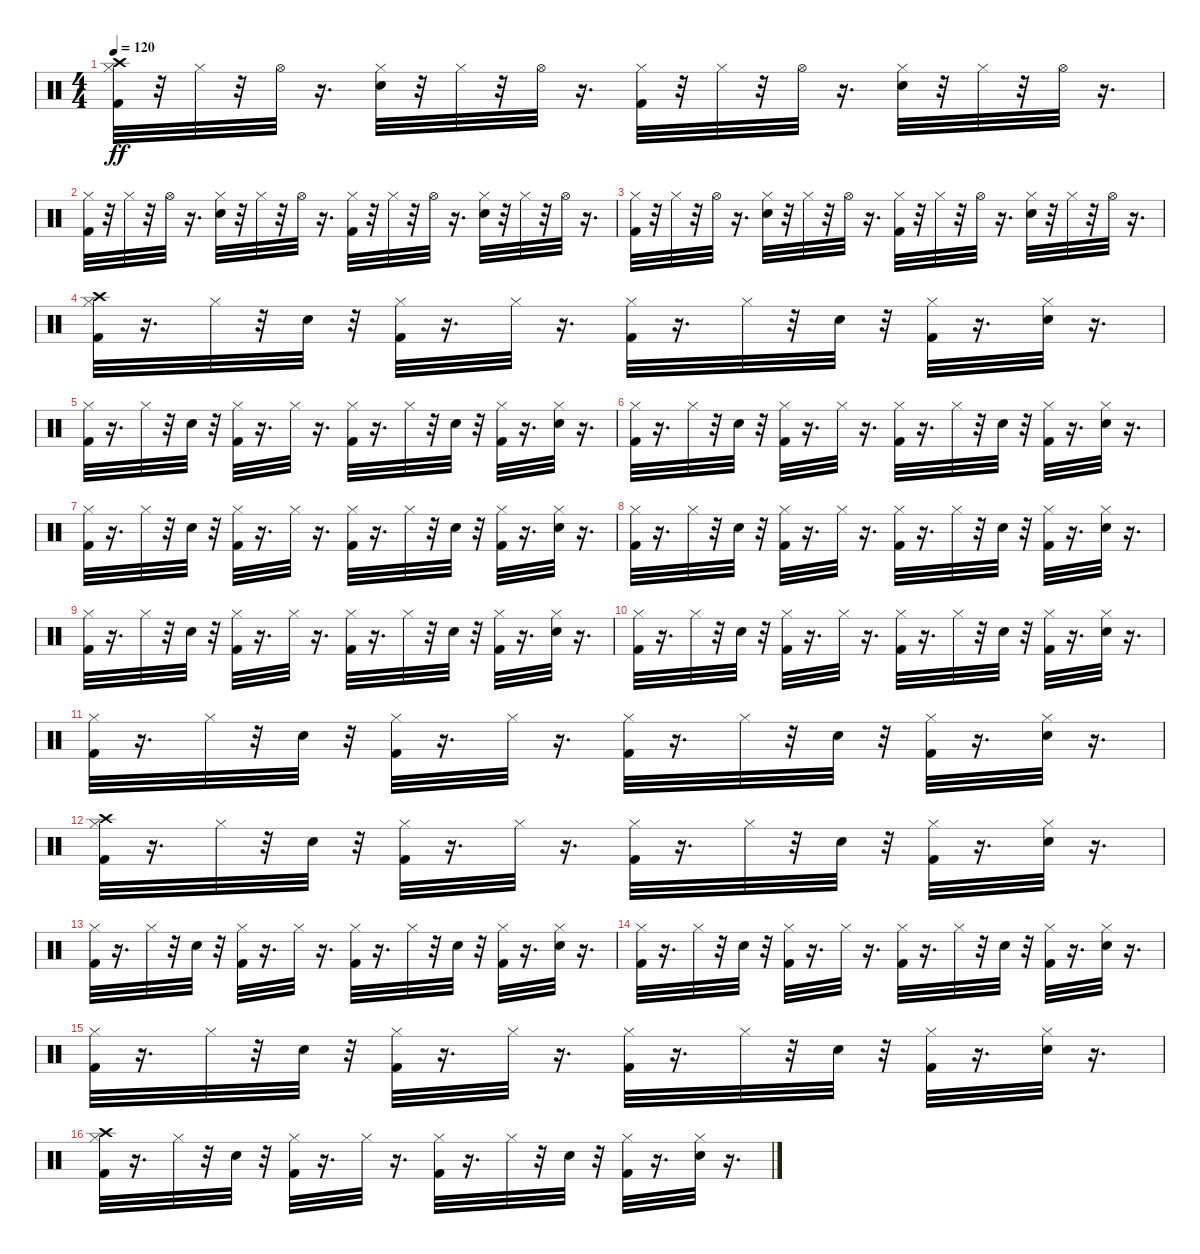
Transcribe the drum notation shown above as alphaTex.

\track "" {instrument percussion}
\staff {score}
\articulation defaults
\ts (4 4)
\tempo 120
\clef neutral
\ks c
("Kick (hit) 2" "Hi-Hat (closed)" "Crash high (hit)").32{dy ff} r.32 "Hi-Hat (closed)".32 r.32 "Hi-Hat (open)".32 r.16{d} ("Snare (hit) 2" "Hi-Hat (closed)").32 r.32 "Hi-Hat (closed)".32 r.32 "Hi-Hat (open)".32 r.16{d} ("Kick (hit) 2" "Hi-Hat (closed)").32 r.32 "Hi-Hat (closed)".32 r.32 "Hi-Hat (open)".32 r.16{d} ("Snare (hit) 2" "Hi-Hat (closed)").32 r.32 "Hi-Hat (closed)".32 r.32 "Hi-Hat (open)".32 r.16{d} |
("Kick (hit) 2" "Hi-Hat (closed)").32 r.32 "Hi-Hat (closed)".32 r.32 "Hi-Hat (open)".32 r.16{d} ("Snare (hit) 2" "Hi-Hat (closed)").32 r.32 "Hi-Hat (closed)".32 r.32 "Hi-Hat (open)".32 r.16{d} ("Kick (hit) 2" "Hi-Hat (closed)").32 r.32 "Hi-Hat (closed)".32 r.32 "Hi-Hat (open)".32 r.16{d} ("Snare (hit) 2" "Hi-Hat (closed)").32 r.32 "Hi-Hat (closed)".32 r.32 "Hi-Hat (open)".32 r.16{d} |
("Kick (hit) 2" "Hi-Hat (closed)").32 r.32 "Hi-Hat (closed)".32 r.32 "Hi-Hat (open)".32 r.16{d} ("Snare (hit) 2" "Hi-Hat (closed)").32 r.32 "Hi-Hat (closed)".32 r.32 "Hi-Hat (open)".32 r.16{d} ("Kick (hit) 2" "Hi-Hat (closed)").32 r.32 "Hi-Hat (closed)".32 r.32 "Hi-Hat (open)".32 r.16{d} ("Snare (hit) 2" "Hi-Hat (closed)").32 r.32 "Hi-Hat (closed)".32 r.32 "Hi-Hat (open)".32 r.16{d} |
("Kick (hit) 2" "Hi-Hat (closed)" "Crash high (hit)").32 r.16{d} "Hi-Hat (closed)".32 r.32 "Snare (hit) 2".32 r.32 ("Kick (hit) 2" "Hi-Hat (closed)").32 r.16{d} "Hi-Hat (closed)".32 r.16{d} ("Kick (hit) 2" "Hi-Hat (closed)").32 r.16{d} "Hi-Hat (closed)".32 r.32 "Snare (hit) 2".32 r.32 ("Kick (hit) 2" "Hi-Hat (closed)").32 r.16{d} ("Snare (hit) 2" "Hi-Hat (closed)").32 r.16{d} |
("Kick (hit) 2" "Hi-Hat (closed)").32 r.16{d} "Hi-Hat (closed)".32 r.32 "Snare (hit) 2".32 r.32 ("Kick (hit) 2" "Hi-Hat (closed)").32 r.16{d} "Hi-Hat (closed)".32 r.16{d} ("Kick (hit) 2" "Hi-Hat (closed)").32 r.16{d} "Hi-Hat (closed)".32 r.32 "Snare (hit) 2".32 r.32 ("Kick (hit) 2" "Hi-Hat (closed)").32 r.16{d} ("Snare (hit) 2" "Hi-Hat (closed)").32 r.16{d} |
("Kick (hit) 2" "Hi-Hat (closed)").32 r.16{d} "Hi-Hat (closed)".32 r.32 "Snare (hit) 2".32 r.32 ("Kick (hit) 2" "Hi-Hat (closed)").32 r.16{d} "Hi-Hat (closed)".32 r.16{d} ("Kick (hit) 2" "Hi-Hat (closed)").32 r.16{d} "Hi-Hat (closed)".32 r.32 "Snare (hit) 2".32 r.32 ("Kick (hit) 2" "Hi-Hat (closed)").32 r.16{d} ("Snare (hit) 2" "Hi-Hat (closed)").32 r.16{d} |
("Kick (hit) 2" "Hi-Hat (closed)").32 r.16{d} "Hi-Hat (closed)".32 r.32 "Snare (hit) 2".32 r.32 ("Kick (hit) 2" "Hi-Hat (closed)").32 r.16{d} "Hi-Hat (closed)".32 r.16{d} ("Kick (hit) 2" "Hi-Hat (closed)").32 r.16{d} "Hi-Hat (closed)".32 r.32 "Snare (hit) 2".32 r.32 ("Kick (hit) 2" "Hi-Hat (closed)").32 r.16{d} ("Snare (hit) 2" "Hi-Hat (closed)").32 r.16{d} |
("Kick (hit) 2" "Hi-Hat (closed)").32 r.16{d} "Hi-Hat (closed)".32 r.32 "Snare (hit) 2".32 r.32 ("Kick (hit) 2" "Hi-Hat (closed)").32 r.16{d} "Hi-Hat (closed)".32 r.16{d} ("Kick (hit) 2" "Hi-Hat (closed)").32 r.16{d} "Hi-Hat (closed)".32 r.32 "Snare (hit) 2".32 r.32 ("Kick (hit) 2" "Hi-Hat (closed)").32 r.16{d} ("Snare (hit) 2" "Hi-Hat (closed)").32 r.16{d} |
("Kick (hit) 2" "Hi-Hat (closed)").32 r.16{d} "Hi-Hat (closed)".32 r.32 "Snare (hit) 2".32 r.32 ("Kick (hit) 2" "Hi-Hat (closed)").32 r.16{d} "Hi-Hat (closed)".32 r.16{d} ("Kick (hit) 2" "Hi-Hat (closed)").32 r.16{d} "Hi-Hat (closed)".32 r.32 "Snare (hit) 2".32 r.32 ("Kick (hit) 2" "Hi-Hat (closed)").32 r.16{d} ("Snare (hit) 2" "Hi-Hat (closed)").32 r.16{d} |
("Kick (hit) 2" "Hi-Hat (closed)").32 r.16{d} "Hi-Hat (closed)".32 r.32 "Snare (hit) 2".32 r.32 ("Kick (hit) 2" "Hi-Hat (closed)").32 r.16{d} "Hi-Hat (closed)".32 r.16{d} ("Kick (hit) 2" "Hi-Hat (closed)").32 r.16{d} "Hi-Hat (closed)".32 r.32 "Snare (hit) 2".32 r.32 ("Kick (hit) 2" "Hi-Hat (closed)").32 r.16{d} ("Snare (hit) 2" "Hi-Hat (closed)").32 r.16{d} |
("Kick (hit) 2" "Hi-Hat (closed)").32 r.16{d} "Hi-Hat (closed)".32 r.32 "Snare (hit) 2".32 r.32 ("Kick (hit) 2" "Hi-Hat (closed)").32 r.16{d} "Hi-Hat (closed)".32 r.16{d} ("Kick (hit) 2" "Hi-Hat (closed)").32 r.16{d} "Hi-Hat (closed)".32 r.32 "Snare (hit) 2".32 r.32 ("Kick (hit) 2" "Hi-Hat (closed)").32 r.16{d} ("Snare (hit) 2" "Hi-Hat (closed)").32 r.16{d} |
("Kick (hit) 2" "Hi-Hat (closed)" "Crash high (hit)").32 r.16{d} "Hi-Hat (closed)".32 r.32 "Snare (hit) 2".32 r.32 ("Kick (hit) 2" "Hi-Hat (closed)").32 r.16{d} "Hi-Hat (closed)".32 r.16{d} ("Kick (hit) 2" "Hi-Hat (closed)").32 r.16{d} "Hi-Hat (closed)".32 r.32 "Snare (hit) 2".32 r.32 ("Kick (hit) 2" "Hi-Hat (closed)").32 r.16{d} ("Snare (hit) 2" "Hi-Hat (closed)").32 r.16{d} |
("Kick (hit) 2" "Hi-Hat (closed)").32 r.16{d} "Hi-Hat (closed)".32 r.32 "Snare (hit) 2".32 r.32 ("Kick (hit) 2" "Hi-Hat (closed)").32 r.16{d} "Hi-Hat (closed)".32 r.16{d} ("Kick (hit) 2" "Hi-Hat (closed)").32 r.16{d} "Hi-Hat (closed)".32 r.32 "Snare (hit) 2".32 r.32 ("Kick (hit) 2" "Hi-Hat (closed)").32 r.16{d} ("Snare (hit) 2" "Hi-Hat (closed)").32 r.16{d} |
("Kick (hit) 2" "Hi-Hat (closed)").32 r.16{d} "Hi-Hat (closed)".32 r.32 "Snare (hit) 2".32 r.32 ("Kick (hit) 2" "Hi-Hat (closed)").32 r.16{d} "Hi-Hat (closed)".32 r.16{d} ("Kick (hit) 2" "Hi-Hat (closed)").32 r.16{d} "Hi-Hat (closed)".32 r.32 "Snare (hit) 2".32 r.32 ("Kick (hit) 2" "Hi-Hat (closed)").32 r.16{d} ("Snare (hit) 2" "Hi-Hat (closed)").32 r.16{d} |
("Kick (hit) 2" "Hi-Hat (closed)").32 r.16{d} "Hi-Hat (closed)".32 r.32 "Snare (hit) 2".32 r.32 ("Kick (hit) 2" "Hi-Hat (closed)").32 r.16{d} "Hi-Hat (closed)".32 r.16{d} ("Kick (hit) 2" "Hi-Hat (closed)").32 r.16{d} "Hi-Hat (closed)".32 r.32 "Snare (hit) 2".32 r.32 ("Kick (hit) 2" "Hi-Hat (closed)").32 r.16{d} ("Snare (hit) 2" "Hi-Hat (closed)").32 r.16{d} |
("Kick (hit) 2" "Hi-Hat (closed)" "Crash high (hit)").32 r.16{d} "Hi-Hat (closed)".32 r.32 "Snare (hit) 2".32 r.32 ("Kick (hit) 2" "Hi-Hat (closed)").32 r.16{d} "Hi-Hat (closed)".32 r.16{d} ("Kick (hit) 2" "Hi-Hat (closed)").32 r.16{d} "Hi-Hat (closed)".32 r.32 "Snare (hit) 2".32 r.32 ("Kick (hit) 2" "Hi-Hat (closed)").32 r.16{d} ("Snare (hit) 2" "Hi-Hat (closed)").32 r.16{d}
